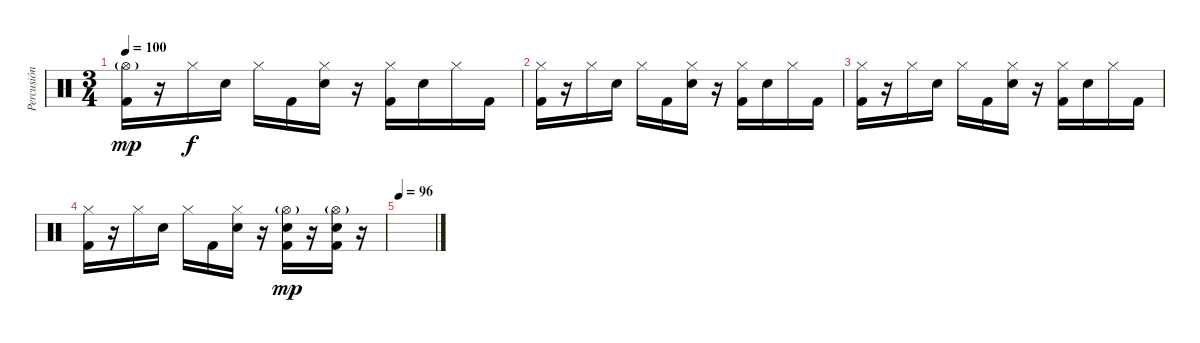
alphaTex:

\track ("Percusión" "Percusión") {instrument percussion}
\staff {score}
\articulation defaults
\ts (3 4)
\tempo 100
\clef neutral
\ks c
("Hi-Hat (open)"{g} "Kick (hit) 2").16{dy mp} r.16 "Hi-Hat (closed)".16{dy f} "Snare (hit) 2".16 "Hi-Hat (closed)".16 "Kick (hit) 2".16 ("Hi-Hat (closed)" "Snare (hit) 2").16 r.16 ("Hi-Hat (closed)" "Kick (hit) 2").16 "Snare (hit) 2".16 "Hi-Hat (closed)".16 "Kick (hit) 2".16 |
("Hi-Hat (closed)" "Kick (hit) 2").16 r.16 "Hi-Hat (closed)".16 "Snare (hit) 2".16 "Hi-Hat (closed)".16 "Kick (hit) 2".16 ("Hi-Hat (closed)" "Snare (hit) 2").16 r.16 ("Hi-Hat (closed)" "Kick (hit) 2").16 "Snare (hit) 2".16 "Hi-Hat (closed)".16 "Kick (hit) 2".16 |
("Hi-Hat (closed)" "Kick (hit) 2").16 r.16 "Hi-Hat (closed)".16 "Snare (hit) 2".16 "Hi-Hat (closed)".16 "Kick (hit) 2".16 ("Hi-Hat (closed)" "Snare (hit) 2").16 r.16 ("Hi-Hat (closed)" "Kick (hit) 2").16 "Snare (hit) 2".16 "Hi-Hat (closed)".16 "Kick (hit) 2".16 |
("Hi-Hat (closed)" "Kick (hit) 2").16 r.16 "Hi-Hat (closed)".16 "Snare (hit) 2".16 "Hi-Hat (closed)".16 "Kick (hit) 2".16 ("Hi-Hat (closed)" "Snare (hit) 2").16 r.16 ("Hi-Hat (open)"{g} "Snare (hit) 2" "Kick (hit) 2").16{dy mp} r.16 ("Hi-Hat (open)"{g} "Snare (hit) 2" "Kick (hit) 2").16 r.16 |
\tempo 96
